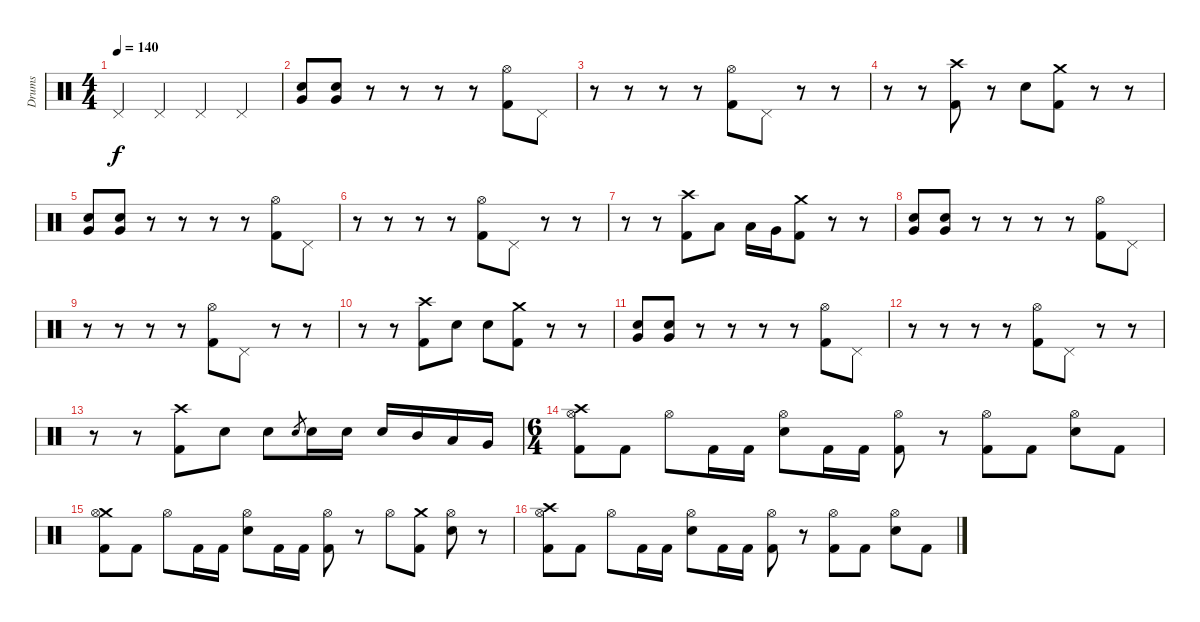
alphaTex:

\track ("Drums" "Drums") {instrument percussion}
\staff {score}
\articulation defaults
\ts (4 4)
\tempo 140
\clef neutral
\ks c "Pedal Hi-Hat (hit)".4{dy f} "Pedal Hi-Hat (hit)".4 "Pedal Hi-Hat (hit)".4 "Pedal Hi-Hat (hit)".4
|
("Very Low Tom (hit)" "Electric Snare (hit)").8 ("Very Low Tom (hit)" "Electric Snare (hit)").8 r.8 r.8 r.8 r.8 ("Hi-Hat (open)" "Kick (hit) 2").8 "Pedal Hi-Hat (hit)".8 |
r.8 r.8 r.8 r.8 ("Hi-Hat (open)" "Kick (hit) 2").8 "Pedal Hi-Hat (hit)".8 r.8 r.8 |
r.8 r.8 ("Crash high (hit)" "Kick (hit) 2").8 r.8 "Electric Snare (hit)".8 ("Crash medium (hit)" "Kick (hit) 2").8 r.8 r.8 |
("Very Low Tom (hit)" "Electric Snare (hit)").8 ("Very Low Tom (hit)" "Electric Snare (hit)").8 r.8 r.8 r.8 r.8 ("Hi-Hat (open)" "Kick (hit) 2").8 "Pedal Hi-Hat (hit)".8 |
r.8 r.8 r.8 r.8 ("Hi-Hat (open)" "Kick (hit) 2").8 "Pedal Hi-Hat (hit)".8 r.8 r.8 |
r.8 r.8 ("Crash high (hit)" "Kick (hit) 2").8 "Low Tom (hit)".8 "Low Tom (hit)".16 "Very Low Tom (hit)".16 ("Crash medium (hit)" "Kick (hit) 2").8 r.8 r.8 |
("Very Low Tom (hit)" "Electric Snare (hit)").8 ("Very Low Tom (hit)" "Electric Snare (hit)").8 r.8 r.8 r.8 r.8 ("Hi-Hat (open)" "Kick (hit) 2").8 "Pedal Hi-Hat (hit)".8 |
r.8 r.8 r.8 r.8 ("Hi-Hat (open)" "Kick (hit) 2").8 "Pedal Hi-Hat (hit)".8 r.8 r.8 |
r.8 r.8 ("Crash high (hit)" "Kick (hit) 2").8 "Electric Snare (hit)".8 "Electric Snare (hit)".8 ("Crash medium (hit)" "Kick (hit) 2").8 r.8 r.8 |
("Very Low Tom (hit)" "Electric Snare (hit)").8 ("Very Low Tom (hit)" "Electric Snare (hit)").8 r.8 r.8 r.8 r.8 ("Hi-Hat (open)" "Kick (hit) 2").8 "Pedal Hi-Hat (hit)".8 |
r.8 r.8 r.8 r.8 ("Hi-Hat (open)" "Kick (hit) 2").8 "Pedal Hi-Hat (hit)".8 r.8 r.8 |
r.8 r.8 ("Crash high (hit)" "Kick (hit) 2").8 "Electric Snare (hit)".8 "Electric Snare (hit)".8 "Electric Snare (hit)".8{gr} "Electric Snare (hit)".16 "Electric Snare (hit)".16 "Electric Snare (hit)".16 "Mid Tom (hit)".16 "Low Tom (hit)".16 "Very Low Tom (hit)".16 |
\ts (6 4)
("Crash high (hit)" "Hi-Hat (open)" "Kick (hit) 2").8 "Kick (hit) 2".8 "Hi-Hat (open)".8 "Kick (hit) 2".16 "Kick (hit) 2".16 ("Hi-Hat (open)" "Electric Snare (hit)").8 "Kick (hit) 2".16 "Kick (hit) 2".16 ("Hi-Hat (open)" "Kick (hit) 2").8 r.8 ("Hi-Hat (open)" "Kick (hit) 2").8 "Kick (hit) 2".8 ("Hi-Hat (open)" "Electric Snare (hit)").8 "Kick (hit) 2".8 |
("Crash medium (hit)" "Hi-Hat (open)" "Kick (hit) 2").8 "Kick (hit) 2".8 "Hi-Hat (open)".8 "Kick (hit) 2".16 "Kick (hit) 2".16 ("Hi-Hat (open)" "Electric Snare (hit)").8 "Kick (hit) 2".16 "Kick (hit) 2".16 ("Hi-Hat (open)" "Kick (hit) 2").8 r.8 "Hi-Hat (open)".8 ("Crash medium (hit)" "Kick (hit) 2").8 ("Hi-Hat (open)" "Electric Snare (hit)").8 r.8 |
("Crash high (hit)" "Hi-Hat (open)" "Kick (hit) 2").8 "Kick (hit) 2".8 "Hi-Hat (open)".8 "Kick (hit) 2".16 "Kick (hit) 2".16 ("Hi-Hat (open)" "Electric Snare (hit)").8 "Kick (hit) 2".16 "Kick (hit) 2".16 ("Hi-Hat (open)" "Kick (hit) 2").8 r.8 ("Hi-Hat (open)" "Kick (hit) 2").8 "Kick (hit) 2".8 ("Hi-Hat (open)" "Electric Snare (hit)").8 "Kick (hit) 2".8
